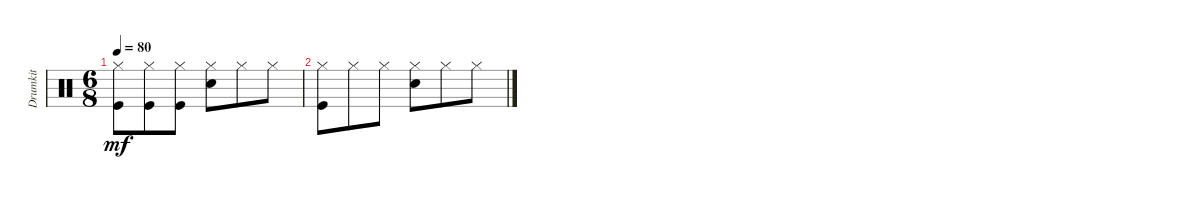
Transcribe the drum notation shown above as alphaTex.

\track ("Drumkit" "Drumkit") {instrument percussion}
\staff {score}
\articulation defaults
\ts (6 8)
\tempo 80
\clef neutral
\ks c
("Hi-Hat (closed)" "Kick (hit)").8{dy mf} ("Hi-Hat (closed)" "Kick (hit)").8 ("Hi-Hat (closed)" "Kick (hit)").8 ("Hi-Hat (closed)" "Snare (hit) 2").8 "Hi-Hat (closed)".8 "Hi-Hat (closed)".8 |
("Hi-Hat (closed)" "Kick (hit)").8 "Hi-Hat (closed)".8 "Hi-Hat (closed)".8 ("Hi-Hat (closed)" "Snare (hit) 2").8 "Hi-Hat (closed)".8 "Hi-Hat (closed)".8
